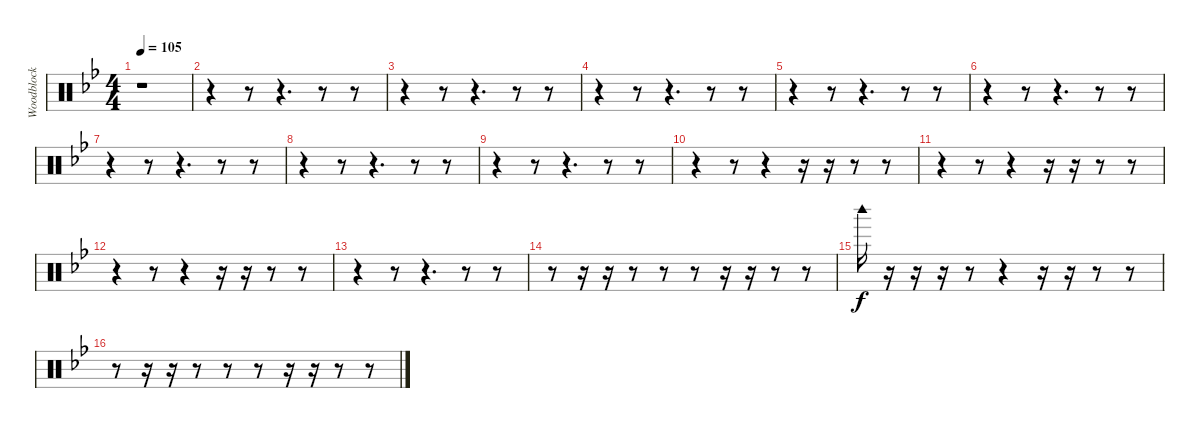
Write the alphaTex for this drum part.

\track ("Woodblock" "Woodblock") {instrument percussion}
\staff {score}
\articulation defaults
\ts (4 4)
\tempo 105
\clef neutral
\ks gminor
r.1{dy f} |
r.4 r.8 r.4{d} r.8 r.8 |
r.4 r.8 r.4{d} r.8 r.8 |
r.4 r.8 r.4{d} r.8 r.8 |
r.4 r.8 r.4{d} r.8 r.8 |
r.4 r.8 r.4{d} r.8 r.8 |
r.4 r.8 r.4{d} r.8 r.8 |
r.4 r.8 r.4{d} r.8 r.8 |
r.4 r.8 r.4{d} r.8 r.8 |
r.4 r.8 r.4 r.16 r.16 r.8 r.8 |
r.4 r.8 r.4 r.16 r.16 r.8 r.8 |
r.4 r.8 r.4 r.16 r.16 r.8 r.8 |
r.4 r.8 r.4{d} r.8 r.8 |
r.8 r.16 r.16 r.8 r.8 r.8 r.16 r.16 r.8 r.8 |
"Woodblock high (hit)".16 r.16 r.16 r.16 r.8 r.4 r.16 r.16 r.8 r.8 |
r.8 r.16 r.16 r.8 r.8 r.8 r.16 r.16 r.8 r.8
